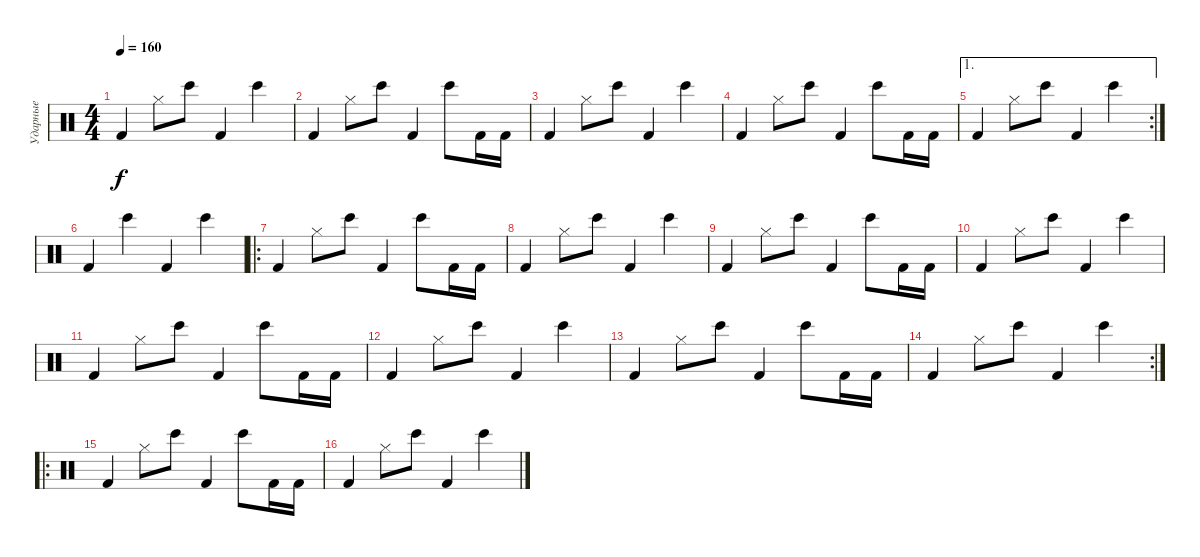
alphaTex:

\track ("Ударные" "Ударные") {instrument percussion}
\staff {score}
\articulation defaults
\ts (4 4)
\tempo 160
\clef neutral
\ks c "Kick (hit) 2".4{dy f} "Hi-Hat (closed)".8 "Bongo High (hit)".8 "Kick (hit) 2".4 "Bongo High (hit)".4
|
"Kick (hit) 2".4 "Hi-Hat (closed)".8 "Bongo High (hit)".8 "Kick (hit) 2".4 "Bongo High (hit)".8 "Kick (hit) 2".16 "Kick (hit) 2".16 |
"Kick (hit) 2".4 "Hi-Hat (closed)".8 "Bongo High (hit)".8 "Kick (hit) 2".4 "Bongo High (hit)".4 |
"Kick (hit) 2".4 "Hi-Hat (closed)".8 "Bongo High (hit)".8 "Kick (hit) 2".4 "Bongo High (hit)".8 "Kick (hit) 2".16 "Kick (hit) 2".16 |
\ae 1
\rc 2 "Kick (hit) 2".4 "Hi-Hat (closed)".8 "Bongo High (hit)".8 "Kick (hit) 2".4 "Bongo High (hit)".4
|
"Kick (hit) 2".4 "Bongo High (hit)".4 "Kick (hit) 2".4 "Bongo High (hit)".4 |
\ro "Kick (hit) 2".4 "Hi-Hat (closed)".8 "Bongo High (hit)".8 "Kick (hit) 2".4 "Bongo High (hit)".8 "Kick (hit) 2".16 "Kick (hit) 2".16
|
"Kick (hit) 2".4 "Hi-Hat (closed)".8 "Bongo High (hit)".8 "Kick (hit) 2".4 "Bongo High (hit)".4 |
"Kick (hit) 2".4 "Hi-Hat (closed)".8 "Bongo High (hit)".8 "Kick (hit) 2".4 "Bongo High (hit)".8 "Kick (hit) 2".16 "Kick (hit) 2".16 |
"Kick (hit) 2".4 "Hi-Hat (closed)".8 "Bongo High (hit)".8 "Kick (hit) 2".4 "Bongo High (hit)".4 |
"Kick (hit) 2".4 "Hi-Hat (closed)".8 "Bongo High (hit)".8 "Kick (hit) 2".4 "Bongo High (hit)".8 "Kick (hit) 2".16 "Kick (hit) 2".16 |
"Kick (hit) 2".4 "Hi-Hat (closed)".8 "Bongo High (hit)".8 "Kick (hit) 2".4 "Bongo High (hit)".4 |
"Kick (hit) 2".4 "Hi-Hat (closed)".8 "Bongo High (hit)".8 "Kick (hit) 2".4 "Bongo High (hit)".8 "Kick (hit) 2".16 "Kick (hit) 2".16 |
\rc 2 "Kick (hit) 2".4 "Hi-Hat (closed)".8 "Bongo High (hit)".8 "Kick (hit) 2".4 "Bongo High (hit)".4
|
\ro "Kick (hit) 2".4 "Hi-Hat (closed)".8 "Bongo High (hit)".8 "Kick (hit) 2".4 "Bongo High (hit)".8 "Kick (hit) 2".16 "Kick (hit) 2".16
|
"Kick (hit) 2".4 "Hi-Hat (closed)".8 "Bongo High (hit)".8 "Kick (hit) 2".4 "Bongo High (hit)".4
